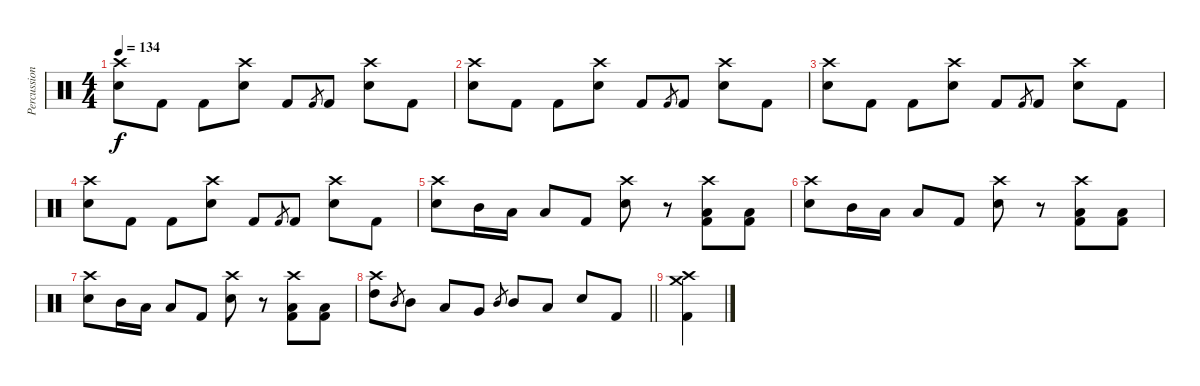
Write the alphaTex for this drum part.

\track ("Percussion" "Percussion") {instrument percussion}
\staff {score}
\articulation defaults
\ts (4 4)
\tempo 134
\clef neutral
\ks c
("Crash high (hit)" "Snare (hit) 2").8{dy f} "Kick (hit) 2".8 "Kick (hit) 2".8 ("Crash high (hit)" "Snare (hit) 2").8 "Kick (hit) 2".8 "Kick (hit) 2".8{gr} "Kick (hit) 2".8 ("Crash high (hit)" "Snare (hit) 2").8 "Kick (hit) 2".8 |
("Crash high (hit)" "Snare (hit) 2").8 "Kick (hit) 2".8 "Kick (hit) 2".8 ("Crash high (hit)" "Snare (hit) 2").8 "Kick (hit) 2".8 "Kick (hit) 2".8{gr} "Kick (hit) 2".8 ("Crash high (hit)" "Snare (hit) 2").8 "Kick (hit) 2".8 |
("Crash high (hit)" "Snare (hit) 2").8 "Kick (hit) 2".8 "Kick (hit) 2".8 ("Crash high (hit)" "Snare (hit) 2").8 "Kick (hit) 2".8 "Kick (hit) 2".8{gr} "Kick (hit) 2".8 ("Crash high (hit)" "Snare (hit) 2").8 "Kick (hit) 2".8 |
("Crash high (hit)" "Snare (hit) 2").8 "Kick (hit) 2".8 "Kick (hit) 2".8 ("Crash high (hit)" "Snare (hit) 2").8 "Kick (hit) 2".8 "Kick (hit) 2".8{gr} "Kick (hit) 2".8 ("Crash high (hit)" "Snare (hit) 2").8 "Kick (hit) 2".8 |
("Crash high (hit)" "Snare (hit) 2").8 "Mid Tom (hit)".16 "Low Tom (hit)".16 "Low Tom (hit)".8 "Kick (hit) 2".8 ("Crash high (hit)" "Snare (hit) 2").8 r.8 ("Crash high (hit)" "Low Tom (hit)" "Kick (hit) 2").8 ("Low Tom (hit)" "Kick (hit) 2").8 |
("Crash high (hit)" "Snare (hit) 2").8 "Mid Tom (hit)".16 "Low Tom (hit)".16 "Low Tom (hit)".8 "Kick (hit) 2".8 ("Crash high (hit)" "Snare (hit) 2").8 r.8 ("Crash high (hit)" "Low Tom (hit)" "Kick (hit) 2").8 ("Low Tom (hit)" "Kick (hit) 2").8 |
("Crash high (hit)" "Snare (hit) 2").8 "Mid Tom (hit)".16 "Low Tom (hit)".16 "Low Tom (hit)".8 "Kick (hit) 2".8 ("Crash high (hit)" "Snare (hit) 2").8 r.8 ("Crash high (hit)" "Low Tom (hit)" "Kick (hit) 2").8 ("Low Tom (hit)" "Kick (hit) 2").8 |
\barLineRight lightlight
("Crash high (hit)" "High Tom (hit)").8 "Mid Tom (hit)".8{gr} "Mid Tom (hit)".8 "Low Tom (hit)".8 "Very Low Tom (hit)".8 "Mid Tom (hit)".8{gr} "Mid Tom (hit)".8 "Low Tom (hit)".8 "Snare (hit) 2".8 "Kick (hit) 2".8 |
("Crash high (hit)" "Crash medium (hit)" "Kick (hit) 2").4
